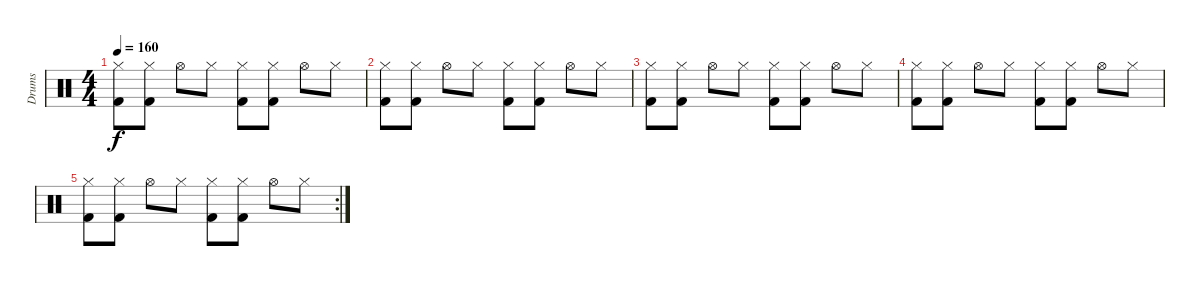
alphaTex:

\track ("Drums" "Drums") {instrument percussion}
\staff {score}
\articulation defaults
\ts (4 4)
\tempo 160
\clef neutral
\ks c
("Kick (hit) 2" "Hi-Hat (closed)").8{dy f} ("Kick (hit) 2" "Hi-Hat (closed)").8 "Hi-Hat (open)".8 "Hi-Hat (closed)".8 ("Kick (hit) 2" "Hi-Hat (closed)").8 ("Kick (hit) 2" "Hi-Hat (closed)").8 "Hi-Hat (open)".8 "Hi-Hat (closed)".8 |
("Kick (hit) 2" "Hi-Hat (closed)").8 ("Kick (hit) 2" "Hi-Hat (closed)").8 "Hi-Hat (open)".8 "Hi-Hat (closed)".8 ("Kick (hit) 2" "Hi-Hat (closed)").8 ("Kick (hit) 2" "Hi-Hat (closed)").8 "Hi-Hat (open)".8 "Hi-Hat (closed)".8 |
("Kick (hit) 2" "Hi-Hat (closed)").8 ("Kick (hit) 2" "Hi-Hat (closed)").8 "Hi-Hat (open)".8 "Hi-Hat (closed)".8 ("Kick (hit) 2" "Hi-Hat (closed)").8 ("Kick (hit) 2" "Hi-Hat (closed)").8 "Hi-Hat (open)".8 "Hi-Hat (closed)".8 |
("Kick (hit) 2" "Hi-Hat (closed)").8 ("Kick (hit) 2" "Hi-Hat (closed)").8 "Hi-Hat (open)".8 "Hi-Hat (closed)".8 ("Kick (hit) 2" "Hi-Hat (closed)").8 ("Kick (hit) 2" "Hi-Hat (closed)").8 "Hi-Hat (open)".8 "Hi-Hat (closed)".8 |
\rc 2
("Kick (hit) 2" "Hi-Hat (closed)").8 ("Kick (hit) 2" "Hi-Hat (closed)").8 "Hi-Hat (open)".8 "Hi-Hat (closed)".8 ("Kick (hit) 2" "Hi-Hat (closed)").8 ("Kick (hit) 2" "Hi-Hat (closed)").8 "Hi-Hat (open)".8 "Hi-Hat (closed)".8
